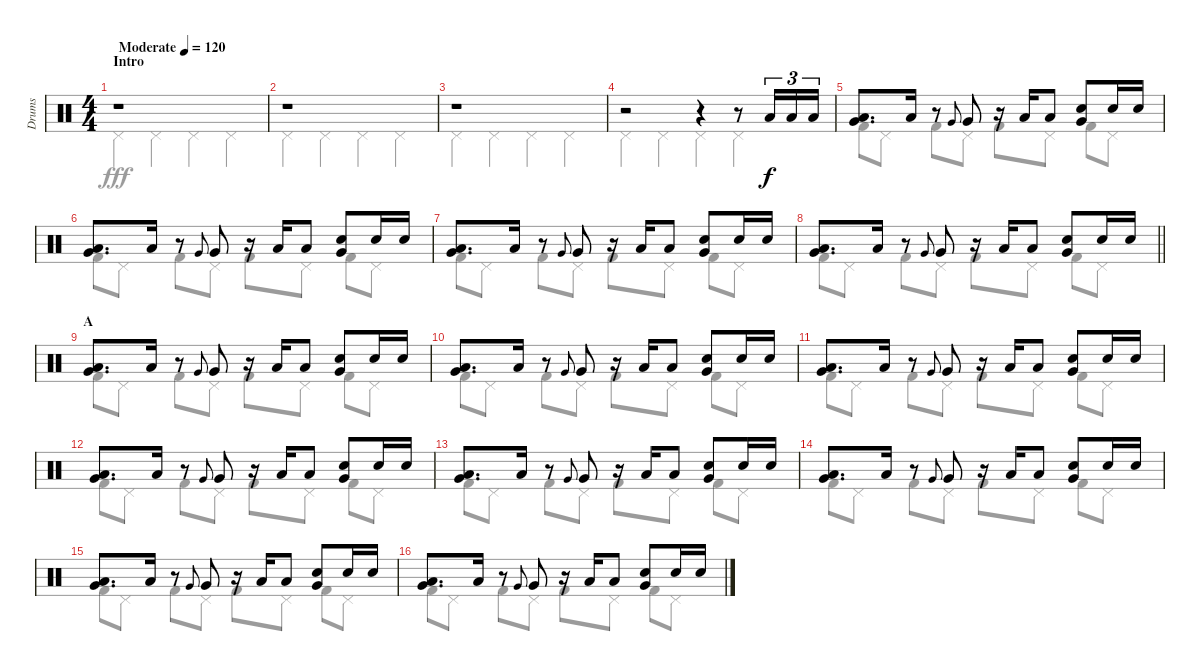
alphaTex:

\track ("Drums" "Drums") {instrument percussion}
\staff {score}
\articulation defaults
\voice
\ts (4 4)
\section ("" "Intro")
\tempo (120 "Moderate")
\clef neutral
\ks c
r.1{dy f} |
r.1 |
r.1 |
r.2 r.4 r.8 "Low Tom (hit)".16{tu (3 2)} "Low Tom (hit)".16{tu (3 2)} "Low Tom (hit)".16{tu (3 2)} |
("Low Tom (hit)" "Very Low Tom (hit)").8{d} "Low Tom (hit)".16 r.8 "Very Low Tom (hit)".8{gr onbeat} "Very Low Tom (hit)".8 r.16 "Low Tom (hit)".16 "Low Tom (hit)".8 ("Snare (hit) 2" "Very Low Tom (hit)").8 "Snare (hit) 2".16 "Snare (hit) 2".16 |
("Low Tom (hit)" "Very Low Tom (hit)").8{d} "Low Tom (hit)".16 r.8 "Very Low Tom (hit)".8{gr onbeat} "Very Low Tom (hit)".8 r.16 "Low Tom (hit)".16 "Low Tom (hit)".8 ("Snare (hit) 2" "Very Low Tom (hit)").8 "Snare (hit) 2".16 "Snare (hit) 2".16 |
("Low Tom (hit)" "Very Low Tom (hit)").8{d} "Low Tom (hit)".16 r.8 "Very Low Tom (hit)".8{gr onbeat} "Very Low Tom (hit)".8 r.16 "Low Tom (hit)".16 "Low Tom (hit)".8 ("Snare (hit) 2" "Very Low Tom (hit)").8 "Snare (hit) 2".16 "Snare (hit) 2".16 |
\barLineRight lightlight
("Low Tom (hit)" "Very Low Tom (hit)").8{d} "Low Tom (hit)".16 r.8 "Very Low Tom (hit)".8{gr onbeat} "Very Low Tom (hit)".8 r.16 "Low Tom (hit)".16 "Low Tom (hit)".8 ("Snare (hit) 2" "Very Low Tom (hit)").8 "Snare (hit) 2".16 "Snare (hit) 2".16 |
\section ("" "A")
("Low Tom (hit)" "Very Low Tom (hit)").8{d} "Low Tom (hit)".16 r.8 "Very Low Tom (hit)".8{gr onbeat} "Very Low Tom (hit)".8 r.16 "Low Tom (hit)".16 "Low Tom (hit)".8 ("Snare (hit) 2" "Very Low Tom (hit)").8 "Snare (hit) 2".16 "Snare (hit) 2".16 |
("Low Tom (hit)" "Very Low Tom (hit)").8{d} "Low Tom (hit)".16 r.8 "Very Low Tom (hit)".8{gr onbeat} "Very Low Tom (hit)".8 r.16 "Low Tom (hit)".16 "Low Tom (hit)".8 ("Snare (hit) 2" "Very Low Tom (hit)").8 "Snare (hit) 2".16 "Snare (hit) 2".16 |
("Low Tom (hit)" "Very Low Tom (hit)").8{d} "Low Tom (hit)".16 r.8 "Very Low Tom (hit)".8{gr onbeat} "Very Low Tom (hit)".8 r.16 "Low Tom (hit)".16 "Low Tom (hit)".8 ("Snare (hit) 2" "Very Low Tom (hit)").8 "Snare (hit) 2".16 "Snare (hit) 2".16 |
("Low Tom (hit)" "Very Low Tom (hit)").8{d} "Low Tom (hit)".16 r.8 "Very Low Tom (hit)".8{gr onbeat} "Very Low Tom (hit)".8 r.16 "Low Tom (hit)".16 "Low Tom (hit)".8 ("Snare (hit) 2" "Very Low Tom (hit)").8 "Snare (hit) 2".16 "Snare (hit) 2".16 |
("Low Tom (hit)" "Very Low Tom (hit)").8{d} "Low Tom (hit)".16 r.8 "Very Low Tom (hit)".8{gr onbeat} "Very Low Tom (hit)".8 r.16 "Low Tom (hit)".16 "Low Tom (hit)".8 ("Snare (hit) 2" "Very Low Tom (hit)").8 "Snare (hit) 2".16 "Snare (hit) 2".16 |
("Low Tom (hit)" "Very Low Tom (hit)").8{d} "Low Tom (hit)".16 r.8 "Very Low Tom (hit)".8{gr onbeat} "Very Low Tom (hit)".8 r.16 "Low Tom (hit)".16 "Low Tom (hit)".8 ("Snare (hit) 2" "Very Low Tom (hit)").8 "Snare (hit) 2".16 "Snare (hit) 2".16 |
("Low Tom (hit)" "Very Low Tom (hit)").8{d} "Low Tom (hit)".16 r.8 "Very Low Tom (hit)".8{gr onbeat} "Very Low Tom (hit)".8 r.16 "Low Tom (hit)".16 "Low Tom (hit)".8 ("Snare (hit) 2" "Very Low Tom (hit)").8 "Snare (hit) 2".16 "Snare (hit) 2".16 |
("Low Tom (hit)" "Very Low Tom (hit)").8{d} "Low Tom (hit)".16 r.8 "Very Low Tom (hit)".8{gr onbeat} "Very Low Tom (hit)".8 r.16 "Low Tom (hit)".16 "Low Tom (hit)".8 ("Snare (hit) 2" "Very Low Tom (hit)").8 "Snare (hit) 2".16 "Snare (hit) 2".16
\voice
\clef neutral
\ottava regular
\simile none
\ks c "Pedal Hi-Hat (hit)".4{dy fff} "Pedal Hi-Hat (hit)".4 "Pedal Hi-Hat (hit)".4 "Pedal Hi-Hat (hit)".4
|
"Pedal Hi-Hat (hit)".4 "Pedal Hi-Hat (hit)".4 "Pedal Hi-Hat (hit)".4 "Pedal Hi-Hat (hit)".4 |
"Pedal Hi-Hat (hit)".4 "Pedal Hi-Hat (hit)".4 "Pedal Hi-Hat (hit)".4 "Pedal Hi-Hat (hit)".4 |
"Pedal Hi-Hat (hit)".4 "Pedal Hi-Hat (hit)".4 "Pedal Hi-Hat (hit)".4 "Pedal Hi-Hat (hit)".4 |
"Kick (hit) 2".8 "Pedal Hi-Hat (hit)".8 "Kick (hit) 2".8 "Pedal Hi-Hat (hit)".8 "Kick (hit) 2".8 "Pedal Hi-Hat (hit)".8 "Kick (hit) 2".8 "Pedal Hi-Hat (hit)".8 |
"Kick (hit) 2".8 "Pedal Hi-Hat (hit)".8 "Kick (hit) 2".8 "Pedal Hi-Hat (hit)".8 "Kick (hit) 2".8 "Pedal Hi-Hat (hit)".8 "Kick (hit) 2".8 "Pedal Hi-Hat (hit)".8 |
"Kick (hit) 2".8 "Pedal Hi-Hat (hit)".8 "Kick (hit) 2".8 "Pedal Hi-Hat (hit)".8 "Kick (hit) 2".8 "Pedal Hi-Hat (hit)".8 "Kick (hit) 2".8 "Pedal Hi-Hat (hit)".8 |
\barLineRight lightlight "Kick (hit) 2".8 "Pedal Hi-Hat (hit)".8 "Kick (hit) 2".8 "Pedal Hi-Hat (hit)".8 "Kick (hit) 2".8 "Pedal Hi-Hat (hit)".8 "Kick (hit) 2".8 "Pedal Hi-Hat (hit)".8
|
"Kick (hit) 2".8 "Pedal Hi-Hat (hit)".8 "Kick (hit) 2".8 "Pedal Hi-Hat (hit)".8 "Kick (hit) 2".8 "Pedal Hi-Hat (hit)".8 "Kick (hit) 2".8 "Pedal Hi-Hat (hit)".8 |
"Kick (hit) 2".8 "Pedal Hi-Hat (hit)".8 "Kick (hit) 2".8 "Pedal Hi-Hat (hit)".8 "Kick (hit) 2".8 "Pedal Hi-Hat (hit)".8 "Kick (hit) 2".8 "Pedal Hi-Hat (hit)".8 |
"Kick (hit) 2".8 "Pedal Hi-Hat (hit)".8 "Kick (hit) 2".8 "Pedal Hi-Hat (hit)".8 "Kick (hit) 2".8 "Pedal Hi-Hat (hit)".8 "Kick (hit) 2".8 "Pedal Hi-Hat (hit)".8 |
"Kick (hit) 2".8 "Pedal Hi-Hat (hit)".8 "Kick (hit) 2".8 "Pedal Hi-Hat (hit)".8 "Kick (hit) 2".8 "Pedal Hi-Hat (hit)".8 "Kick (hit) 2".8 "Pedal Hi-Hat (hit)".8 |
"Kick (hit) 2".8 "Pedal Hi-Hat (hit)".8 "Kick (hit) 2".8 "Pedal Hi-Hat (hit)".8 "Kick (hit) 2".8 "Pedal Hi-Hat (hit)".8 "Kick (hit) 2".8 "Pedal Hi-Hat (hit)".8 |
"Kick (hit) 2".8 "Pedal Hi-Hat (hit)".8 "Kick (hit) 2".8 "Pedal Hi-Hat (hit)".8 "Kick (hit) 2".8 "Pedal Hi-Hat (hit)".8 "Kick (hit) 2".8 "Pedal Hi-Hat (hit)".8 |
"Kick (hit) 2".8 "Pedal Hi-Hat (hit)".8 "Kick (hit) 2".8 "Pedal Hi-Hat (hit)".8 "Kick (hit) 2".8 "Pedal Hi-Hat (hit)".8 "Kick (hit) 2".8 "Pedal Hi-Hat (hit)".8 |
"Kick (hit) 2".8 "Pedal Hi-Hat (hit)".8 "Kick (hit) 2".8 "Pedal Hi-Hat (hit)".8 "Kick (hit) 2".8 "Pedal Hi-Hat (hit)".8 "Kick (hit) 2".8 "Pedal Hi-Hat (hit)".8
